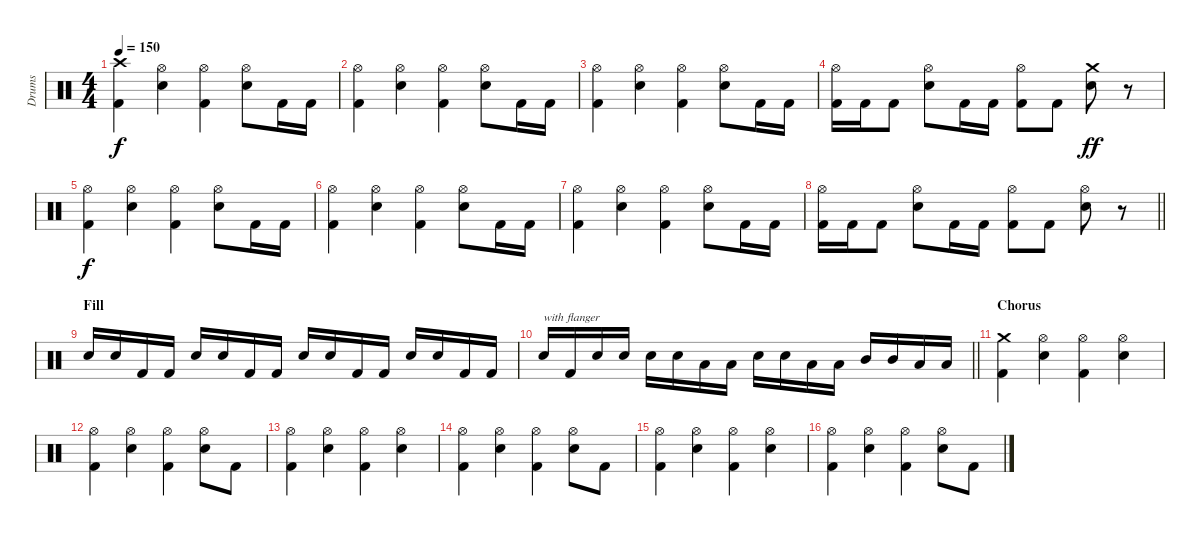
\track ("Drums" "Drums") {instrument percussion}
\staff {score}
\articulation defaults
\ts (4 4)
\tempo 150
\clef neutral
\ks c
("Crash high (hit)" "Kick (hit) 2").4{dy f} ("Hi-Hat (open)" "Electric Snare (hit)").4 ("Hi-Hat (open)" "Kick (hit) 2").4 ("Hi-Hat (open)" "Electric Snare (hit)").8 "Kick (hit) 2".16 "Kick (hit) 2".16 |
("Hi-Hat (open)" "Kick (hit) 2").4 ("Hi-Hat (open)" "Electric Snare (hit)").4 ("Hi-Hat (open)" "Kick (hit) 2").4 ("Hi-Hat (open)" "Electric Snare (hit)").8 "Kick (hit) 2".16 "Kick (hit) 2".16 |
("Hi-Hat (open)" "Kick (hit) 2").4 ("Hi-Hat (open)" "Electric Snare (hit)").4 ("Hi-Hat (open)" "Kick (hit) 2").4 ("Hi-Hat (open)" "Electric Snare (hit)").8 "Kick (hit) 2".16 "Kick (hit) 2".16 |
("Hi-Hat (open)" "Kick (hit) 2").16 "Kick (hit) 2".16 "Kick (hit) 2".8 ("Hi-Hat (open)" "Electric Snare (hit)").8 "Kick (hit) 2".16 "Kick (hit) 2".16 ("Hi-Hat (open)" "Kick (hit) 2").8 "Kick (hit) 2".8 ("Crash medium (hit)" "Electric Snare (hit)").8{dy ff} r.8 |
("Hi-Hat (open)" "Kick (hit) 2").4{dy f} ("Hi-Hat (open)" "Electric Snare (hit)").4 ("Hi-Hat (open)" "Kick (hit) 2").4 ("Hi-Hat (open)" "Electric Snare (hit)").8 "Kick (hit) 2".16 "Kick (hit) 2".16 |
("Hi-Hat (open)" "Kick (hit) 2").4 ("Hi-Hat (open)" "Electric Snare (hit)").4 ("Hi-Hat (open)" "Kick (hit) 2").4 ("Hi-Hat (open)" "Electric Snare (hit)").8 "Kick (hit) 2".16 "Kick (hit) 2".16 |
("Hi-Hat (open)" "Kick (hit) 2").4 ("Hi-Hat (open)" "Electric Snare (hit)").4 ("Hi-Hat (open)" "Kick (hit) 2").4 ("Hi-Hat (open)" "Electric Snare (hit)").8 "Kick (hit) 2".16 "Kick (hit) 2".16 |
\barLineRight lightlight
("Hi-Hat (open)" "Kick (hit) 2").16 "Kick (hit) 2".16 "Kick (hit) 2".8 ("Hi-Hat (open)" "Electric Snare (hit)").8 "Kick (hit) 2".16 "Kick (hit) 2".16 ("Hi-Hat (open)" "Kick (hit) 2").8 "Kick (hit) 2".8 ("Hi-Hat (open)" "Electric Snare (hit)").8 r.8 |
\section ("" "Fill")
"Electric Snare (hit)".16 "Electric Snare (hit)".16 "Kick (hit) 2".16 "Kick (hit) 2".16 "Electric Snare (hit)".16 "Electric Snare (hit)".16 "Kick (hit) 2".16 "Kick (hit) 2".16 "Electric Snare (hit)".16 "Electric Snare (hit)".16 "Kick (hit) 2".16 "Kick (hit) 2".16 "Electric Snare (hit)".16 "Electric Snare (hit)".16 "Kick (hit) 2".16 "Kick (hit) 2".16 |
\barLineRight lightlight "Electric Snare (hit)".16{txt "with flanger"} "Kick (hit) 2".16 "Electric Snare (hit)".16 "Electric Snare (hit)".16 "Electric Snare (hit)".16 "Electric Snare (hit)".16 "Low Tom (hit)".16 "Low Tom (hit)".16 "Electric Snare (hit)".16 "Electric Snare (hit)".16 "Low Tom (hit)".16 "Low Tom (hit)".16 "Mid Tom (hit)".16 "Mid Tom (hit)".16 "Low Tom (hit)".16 "Low Tom (hit)".16
|
\section ("" "Chorus")
("Crash medium (hit)" "Kick (hit) 2").4 ("Hi-Hat (open)" "Electric Snare (hit)").4 ("Hi-Hat (open)" "Kick (hit) 2").4 ("Hi-Hat (open)" "Electric Snare (hit)").4 |
("Hi-Hat (open)" "Kick (hit) 2").4 ("Hi-Hat (open)" "Electric Snare (hit)").4 ("Hi-Hat (open)" "Kick (hit) 2").4 ("Hi-Hat (open)" "Electric Snare (hit)").8 "Kick (hit) 2".8 |
("Hi-Hat (open)" "Kick (hit) 2").4 ("Hi-Hat (open)" "Electric Snare (hit)").4 ("Hi-Hat (open)" "Kick (hit) 2").4 ("Hi-Hat (open)" "Electric Snare (hit)").4 |
("Hi-Hat (open)" "Kick (hit) 2").4 ("Hi-Hat (open)" "Electric Snare (hit)").4 ("Hi-Hat (open)" "Kick (hit) 2").4 ("Hi-Hat (open)" "Electric Snare (hit)").8 "Kick (hit) 2".8 |
("Hi-Hat (open)" "Kick (hit) 2").4 ("Hi-Hat (open)" "Electric Snare (hit)").4 ("Hi-Hat (open)" "Kick (hit) 2").4 ("Hi-Hat (open)" "Electric Snare (hit)").4 |
("Hi-Hat (open)" "Kick (hit) 2").4 ("Hi-Hat (open)" "Electric Snare (hit)").4 ("Hi-Hat (open)" "Kick (hit) 2").4 ("Hi-Hat (open)" "Electric Snare (hit)").8 "Kick (hit) 2".8
